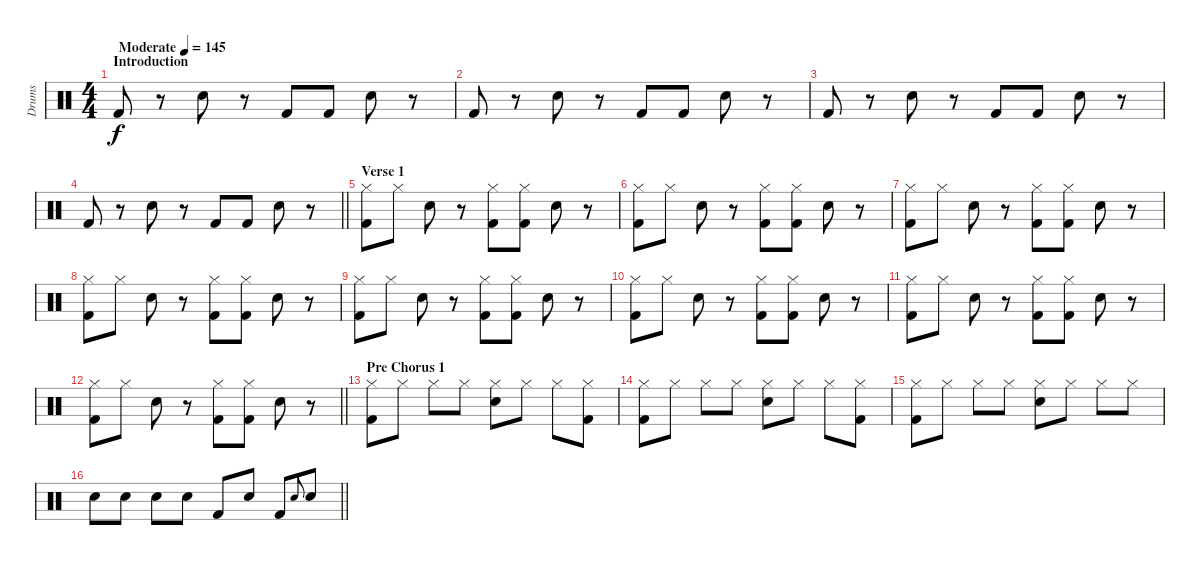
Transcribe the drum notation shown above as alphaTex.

\track ("Drums" "Drums") {instrument percussion}
\staff {score}
\articulation defaults
\ts (4 4)
\section ("" "Introduction")
\tempo (145 "Moderate")
\clef neutral
\ks c "Kick (hit) 2".8{dy f}
r.8 "Electric Snare (hit)".8 r.8 "Kick (hit) 2".8 "Kick (hit) 2".8 "Electric Snare (hit)".8 r.8 |
"Kick (hit) 2".8 r.8 "Electric Snare (hit)".8 r.8 "Kick (hit) 2".8 "Kick (hit) 2".8 "Electric Snare (hit)".8 r.8 |
"Kick (hit) 2".8 r.8 "Electric Snare (hit)".8 r.8 "Kick (hit) 2".8 "Kick (hit) 2".8 "Electric Snare (hit)".8 r.8 |
\barLineRight lightlight "Kick (hit) 2".8
r.8 "Electric Snare (hit)".8 r.8 "Kick (hit) 2".8 "Kick (hit) 2".8 "Electric Snare (hit)".8 r.8 |
\section ("" "Verse 1")
("Hi-Hat (closed)" "Kick (hit) 2").8 "Hi-Hat (closed)".8 "Electric Snare (hit)".8 r.8 ("Hi-Hat (closed)" "Kick (hit) 2").8 ("Hi-Hat (closed)" "Kick (hit) 2").8 "Electric Snare (hit)".8 r.8 |
("Hi-Hat (closed)" "Kick (hit) 2").8 "Hi-Hat (closed)".8 "Electric Snare (hit)".8 r.8 ("Hi-Hat (closed)" "Kick (hit) 2").8 ("Hi-Hat (closed)" "Kick (hit) 2").8 "Electric Snare (hit)".8 r.8 |
("Hi-Hat (closed)" "Kick (hit) 2").8 "Hi-Hat (closed)".8 "Electric Snare (hit)".8 r.8 ("Hi-Hat (closed)" "Kick (hit) 2").8 ("Hi-Hat (closed)" "Kick (hit) 2").8 "Electric Snare (hit)".8 r.8 |
("Hi-Hat (closed)" "Kick (hit) 2").8 "Hi-Hat (closed)".8 "Electric Snare (hit)".8 r.8 ("Hi-Hat (closed)" "Kick (hit) 2").8 ("Hi-Hat (closed)" "Kick (hit) 2").8 "Electric Snare (hit)".8 r.8 |
("Hi-Hat (closed)" "Kick (hit) 2").8 "Hi-Hat (closed)".8 "Electric Snare (hit)".8 r.8 ("Hi-Hat (closed)" "Kick (hit) 2").8 ("Hi-Hat (closed)" "Kick (hit) 2").8 "Electric Snare (hit)".8 r.8 |
("Hi-Hat (closed)" "Kick (hit) 2").8 "Hi-Hat (closed)".8 "Electric Snare (hit)".8 r.8 ("Hi-Hat (closed)" "Kick (hit) 2").8 ("Hi-Hat (closed)" "Kick (hit) 2").8 "Electric Snare (hit)".8 r.8 |
("Hi-Hat (closed)" "Kick (hit) 2").8 "Hi-Hat (closed)".8 "Electric Snare (hit)".8 r.8 ("Hi-Hat (closed)" "Kick (hit) 2").8 ("Hi-Hat (closed)" "Kick (hit) 2").8 "Electric Snare (hit)".8 r.8 |
\barLineRight lightlight
("Hi-Hat (closed)" "Kick (hit) 2").8 "Hi-Hat (closed)".8 "Electric Snare (hit)".8 r.8 ("Hi-Hat (closed)" "Kick (hit) 2").8 ("Hi-Hat (closed)" "Kick (hit) 2").8 "Electric Snare (hit)".8 r.8 |
\section ("" "Pre Chorus 1")
("Hi-Hat (closed)" "Kick (hit) 2").8 "Hi-Hat (closed)".8 "Hi-Hat (closed)".8 "Hi-Hat (closed)".8 ("Hi-Hat (closed)" "Electric Snare (hit)").8 "Hi-Hat (closed)".8 "Hi-Hat (closed)".8 ("Hi-Hat (closed)" "Kick (hit) 2").8 |
("Hi-Hat (closed)" "Kick (hit) 2").8 "Hi-Hat (closed)".8 "Hi-Hat (closed)".8 "Hi-Hat (closed)".8 ("Hi-Hat (closed)" "Electric Snare (hit)").8 "Hi-Hat (closed)".8 "Hi-Hat (closed)".8 ("Hi-Hat (closed)" "Kick (hit) 2").8 |
("Hi-Hat (closed)" "Kick (hit) 2").8 "Hi-Hat (closed)".8 "Hi-Hat (closed)".8 "Hi-Hat (closed)".8 ("Hi-Hat (closed)" "Electric Snare (hit)").8 "Hi-Hat (closed)".8 "Hi-Hat (closed)".8 "Hi-Hat (closed)".8 |
\barLineRight lightlight "Electric Snare (hit)".8 "Electric Snare (hit)".8 "Electric Snare (hit)".8 "Electric Snare (hit)".8 "Kick (hit) 2".8 "Electric Snare (hit)".8 "Kick (hit) 2".8 "Electric Snare (hit)".8{gr onbeat} "Electric Snare (hit)".8
